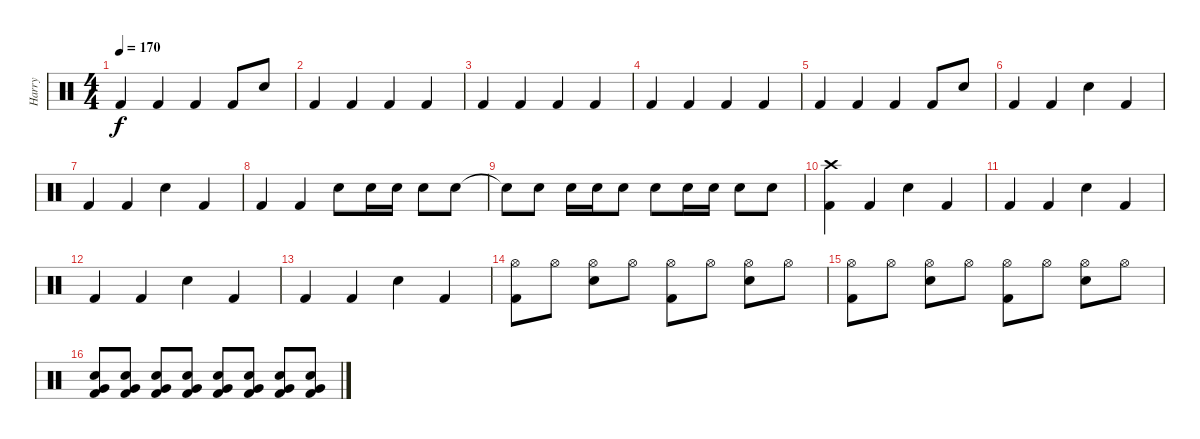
\track ("Harry" "Harry") {instrument percussion}
\staff {score}
\articulation defaults
\ts (4 4)
\tempo 170
\clef neutral
\ks c "Kick (hit) 2".4{dy f} "Kick (hit) 2".4 "Kick (hit) 2".4 "Kick (hit) 2".8 "Snare (hit) 2".8
|
"Kick (hit) 2".4 "Kick (hit) 2".4 "Kick (hit) 2".4 "Kick (hit) 2".4 |
"Kick (hit) 2".4 "Kick (hit) 2".4 "Kick (hit) 2".4 "Kick (hit) 2".4 |
"Kick (hit) 2".4 "Kick (hit) 2".4 "Kick (hit) 2".4 "Kick (hit) 2".4 |
"Kick (hit) 2".4 "Kick (hit) 2".4 "Kick (hit) 2".4 "Kick (hit) 2".8 "Snare (hit) 2".8 |
"Kick (hit) 2".4 "Kick (hit) 2".4 "Snare (hit) 2".4 "Kick (hit) 2".4 |
"Kick (hit) 2".4 "Kick (hit) 2".4 "Snare (hit) 2".4 "Kick (hit) 2".4 |
"Kick (hit) 2".4 "Kick (hit) 2".4 "Snare (hit) 2".8 "Snare (hit) 2".16 "Snare (hit) 2".16 "Snare (hit) 2".8 "Snare (hit) 2".8 |
"Snare (hit) 2"{t}.8 "Snare (hit) 2".8 "Snare (hit) 2".16 "Snare (hit) 2".16 "Snare (hit) 2".8 "Snare (hit) 2".8 "Snare (hit) 2".16 "Snare (hit) 2".16 "Snare (hit) 2".8 "Snare (hit) 2".8 |
("Kick (hit) 2" "Crash high (hit)").4 "Kick (hit) 2".4 "Snare (hit) 2".4 "Kick (hit) 2".4 |
"Kick (hit) 2".4 "Kick (hit) 2".4 "Snare (hit) 2".4 "Kick (hit) 2".4 |
"Kick (hit) 2".4 "Kick (hit) 2".4 "Snare (hit) 2".4 "Kick (hit) 2".4 |
"Kick (hit) 2".4 "Kick (hit) 2".4 "Snare (hit) 2".4 "Kick (hit) 2".4 |
("Hi-Hat (open)" "Kick (hit) 2").8 "Hi-Hat (open)".8 ("Hi-Hat (open)" "Snare (hit) 2").8 "Hi-Hat (open)".8 ("Hi-Hat (open)" "Kick (hit) 2").8 "Hi-Hat (open)".8 ("Hi-Hat (open)" "Snare (hit) 2").8 "Hi-Hat (open)".8 |
("Hi-Hat (open)" "Kick (hit) 2").8 "Hi-Hat (open)".8 ("Hi-Hat (open)" "Snare (hit) 2").8 "Hi-Hat (open)".8 ("Hi-Hat (open)" "Kick (hit) 2").8 "Hi-Hat (open)".8 ("Hi-Hat (open)" "Snare (hit) 2").8 "Hi-Hat (open)".8 |
("Kick (hit) 2" "Snare (hit) 2" "Very Low Tom (hit)").8 ("Kick (hit) 2" "Snare (hit) 2" "Very Low Tom (hit)").8 ("Kick (hit) 2" "Snare (hit) 2" "Very Low Tom (hit)").8 ("Kick (hit) 2" "Snare (hit) 2" "Very Low Tom (hit)").8 ("Kick (hit) 2" "Snare (hit) 2" "Very Low Tom (hit)").8 ("Kick (hit) 2" "Snare (hit) 2" "Very Low Tom (hit)").8 ("Kick (hit) 2" "Snare (hit) 2" "Very Low Tom (hit)").8 ("Kick (hit) 2" "Snare (hit) 2" "Very Low Tom (hit)").8
